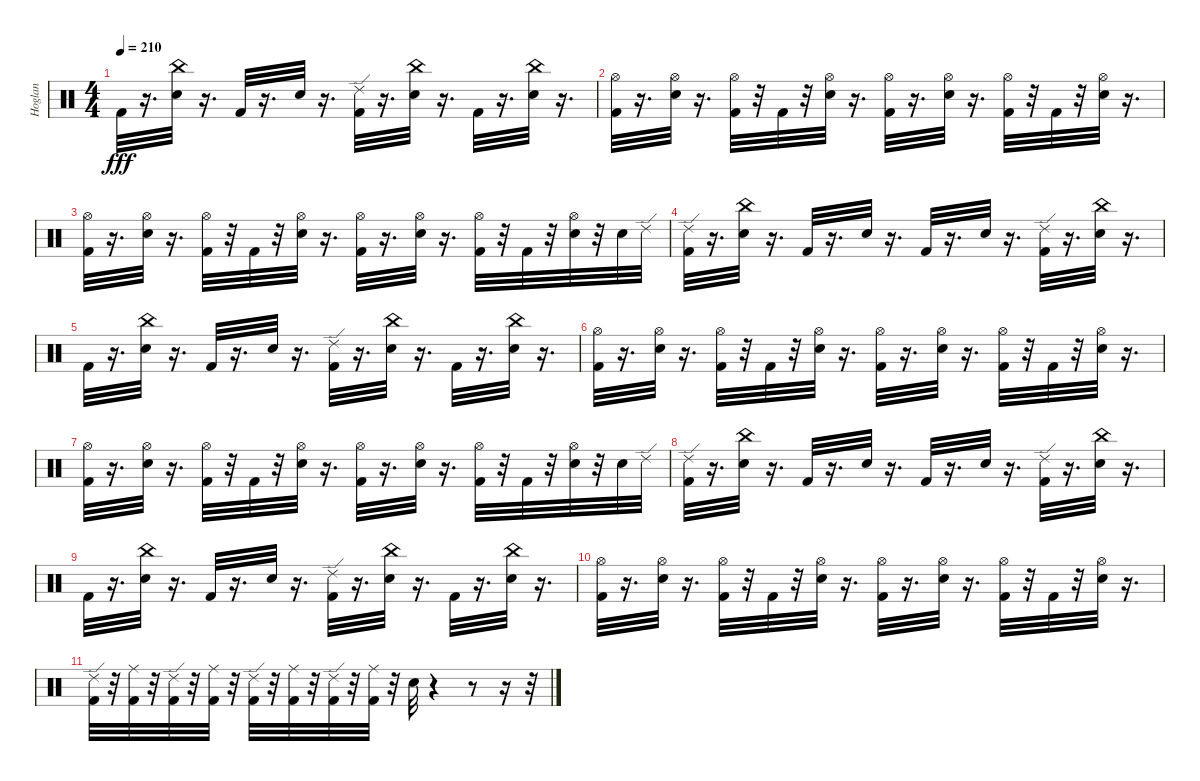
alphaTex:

\track ("Hoglan" "Hoglan") {instrument percussion}
\staff {score}
\articulation defaults
\ts (4 4)
\tempo 210
\clef neutral
\ks c "Kick (hit) 2".32{dy fff}
r.16{d} ("China (hit)" "Electric Snare (hit)").32 r.16{d} "Kick (hit) 2".32 r.16{d} "Electric Snare (hit)".32 r.16{d} ("Ride (edge) 2" "Kick (hit) 2").32 r.16{d} ("China (hit)" "Electric Snare (hit)").32 r.16{d} "Kick (hit) 2".32 r.16{d} ("China (hit)" "Electric Snare (hit)").32 r.16{d} |
("Hi-Hat (open)" "Kick (hit) 2").32 r.16{d} ("Hi-Hat (open)" "Electric Snare (hit)").32 r.16{d} ("Hi-Hat (open)" "Kick (hit) 2").32 r.32 "Kick (hit) 2".32 r.32 ("Hi-Hat (open)" "Electric Snare (hit)").32 r.16{d} ("Hi-Hat (open)" "Kick (hit) 2").32 r.16{d} ("Hi-Hat (open)" "Electric Snare (hit)").32 r.16{d} ("Hi-Hat (open)" "Kick (hit) 2").32 r.32 "Kick (hit) 2".32 r.32 ("Hi-Hat (open)" "Electric Snare (hit)").32 r.16{d} |
("Hi-Hat (open)" "Kick (hit) 2").32 r.16{d} ("Hi-Hat (open)" "Electric Snare (hit)").32 r.16{d} ("Hi-Hat (open)" "Kick (hit) 2").32 r.32 "Kick (hit) 2".32 r.32 ("Hi-Hat (open)" "Electric Snare (hit)").32 r.16{d} ("Hi-Hat (open)" "Kick (hit) 2").32 r.16{d} ("Hi-Hat (open)" "Electric Snare (hit)").32 r.16{d} ("Hi-Hat (open)" "Kick (hit) 2").32 r.32 "Kick (hit) 2".32 r.32 ("Hi-Hat (open)" "Electric Snare (hit)").32 r.32 "Electric Snare (hit)".32 "Ride (edge) 2".32 |
("Ride (edge) 2" "Kick (hit) 2").32 r.16{d} ("China (hit)" "Electric Snare (hit)").32 r.16{d} "Kick (hit) 2".32 r.16{d} "Electric Snare (hit)".32 r.16{d} "Kick (hit) 2".32 r.16{d} "Electric Snare (hit)".32 r.16{d} ("Ride (edge) 2" "Kick (hit) 2").32 r.16{d} ("China (hit)" "Electric Snare (hit)").32 r.16{d} |
"Kick (hit) 2".32 r.16{d} ("China (hit)" "Electric Snare (hit)").32 r.16{d} "Kick (hit) 2".32 r.16{d} "Electric Snare (hit)".32 r.16{d} ("Ride (edge) 2" "Kick (hit) 2").32 r.16{d} ("China (hit)" "Electric Snare (hit)").32 r.16{d} "Kick (hit) 2".32 r.16{d} ("China (hit)" "Electric Snare (hit)").32 r.16{d} |
("Hi-Hat (open)" "Kick (hit) 2").32 r.16{d} ("Hi-Hat (open)" "Electric Snare (hit)").32 r.16{d} ("Hi-Hat (open)" "Kick (hit) 2").32 r.32 "Kick (hit) 2".32 r.32 ("Hi-Hat (open)" "Electric Snare (hit)").32 r.16{d} ("Hi-Hat (open)" "Kick (hit) 2").32 r.16{d} ("Hi-Hat (open)" "Electric Snare (hit)").32 r.16{d} ("Hi-Hat (open)" "Kick (hit) 2").32 r.32 "Kick (hit) 2".32 r.32 ("Hi-Hat (open)" "Electric Snare (hit)").32 r.16{d} |
("Hi-Hat (open)" "Kick (hit) 2").32 r.16{d} ("Hi-Hat (open)" "Electric Snare (hit)").32 r.16{d} ("Hi-Hat (open)" "Kick (hit) 2").32 r.32 "Kick (hit) 2".32 r.32 ("Hi-Hat (open)" "Electric Snare (hit)").32 r.16{d} ("Hi-Hat (open)" "Kick (hit) 2").32 r.16{d} ("Hi-Hat (open)" "Electric Snare (hit)").32 r.16{d} ("Hi-Hat (open)" "Kick (hit) 2").32 r.32 "Kick (hit) 2".32 r.32 ("Hi-Hat (open)" "Electric Snare (hit)").32 r.32 "Electric Snare (hit)".32 "Ride (edge) 2".32 |
("Ride (edge) 2" "Kick (hit) 2").32 r.16{d} ("China (hit)" "Electric Snare (hit)").32 r.16{d} "Kick (hit) 2".32 r.16{d} "Electric Snare (hit)".32 r.16{d} "Kick (hit) 2".32 r.16{d} "Electric Snare (hit)".32 r.16{d} ("Ride (edge) 2" "Kick (hit) 2").32 r.16{d} ("China (hit)" "Electric Snare (hit)").32 r.16{d} |
"Kick (hit) 2".32 r.16{d} ("China (hit)" "Electric Snare (hit)").32 r.16{d} "Kick (hit) 2".32 r.16{d} "Electric Snare (hit)".32 r.16{d} ("Ride (edge) 2" "Kick (hit) 2").32 r.16{d} ("China (hit)" "Electric Snare (hit)").32 r.16{d} "Kick (hit) 2".32 r.16{d} ("China (hit)" "Electric Snare (hit)").32 r.16{d} |
("Hi-Hat (open)" "Kick (hit) 2").32 r.16{d} ("Hi-Hat (open)" "Electric Snare (hit)").32 r.16{d} ("Hi-Hat (open)" "Kick (hit) 2").32 r.32 "Kick (hit) 2".32 r.32 ("Hi-Hat (open)" "Electric Snare (hit)").32 r.16{d} ("Hi-Hat (open)" "Kick (hit) 2").32 r.16{d} ("Hi-Hat (open)" "Electric Snare (hit)").32 r.16{d} ("Hi-Hat (open)" "Kick (hit) 2").32 r.32 "Kick (hit) 2".32 r.32 ("Hi-Hat (open)" "Electric Snare (hit)").32 r.16{d} |
("Ride (edge) 2" "Kick (hit) 2").32 r.32 ("Kick (hit) 2" "Ride (middle)").32 r.32 ("Ride (edge) 2" "Kick (hit) 2").32 r.32 ("Kick (hit) 2" "Ride (middle)").32 r.32 ("Ride (edge) 2" "Kick (hit) 2").32 r.32 ("Kick (hit) 2" "Ride (middle)").32 r.32 ("Ride (edge) 2" "Kick (hit) 2").32 r.32 ("Kick (hit) 2" "Ride (middle)").32 r.32 "Electric Snare (hit)".32 r.4 r.8 r.16 r.32
